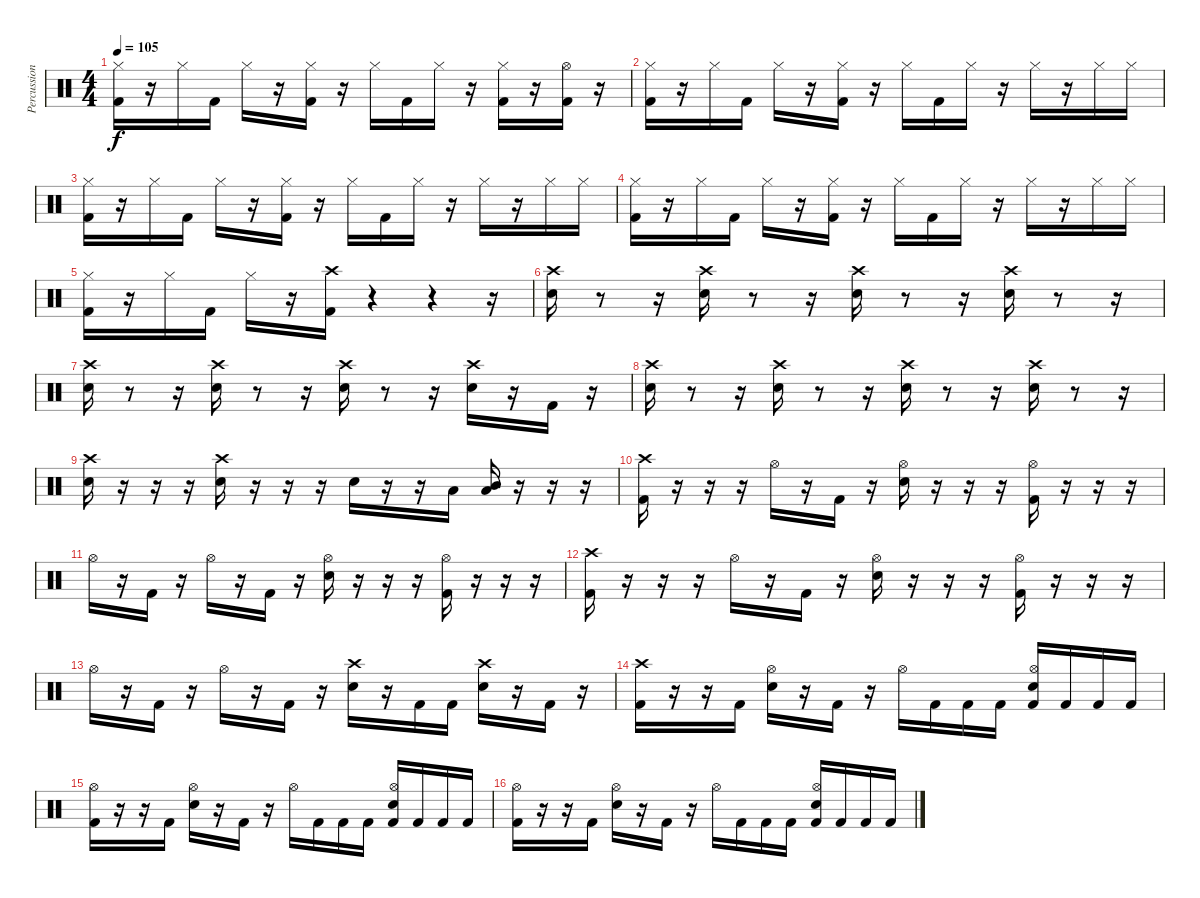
\track ("Percussion" "Percussion") {instrument percussion}
\staff {score}
\articulation defaults
\ts (4 4)
\tempo 105
\clef neutral
\ks c
("Hi-Hat (closed)" "Kick (hit) 2").16{dy f} r.16 "Hi-Hat (closed)".16 "Kick (hit) 2".16 "Hi-Hat (closed)".16 r.16 ("Hi-Hat (closed)" "Kick (hit) 2").16 r.16 "Hi-Hat (closed)".16 "Kick (hit) 2".16 "Hi-Hat (closed)".16 r.16 ("Hi-Hat (closed)" "Kick (hit) 2").16 r.16 ("Hi-Hat (open)" "Kick (hit) 2").16 r.16 |
("Hi-Hat (closed)" "Kick (hit) 2").16 r.16 "Hi-Hat (closed)".16 "Kick (hit) 2".16 "Hi-Hat (closed)".16 r.16 ("Hi-Hat (closed)" "Kick (hit) 2").16 r.16 "Hi-Hat (closed)".16 "Kick (hit) 2".16 "Hi-Hat (closed)".16 r.16 "Hi-Hat (closed)".16 r.16 "Hi-Hat (closed)".16 "Hi-Hat (closed)".16 |
("Hi-Hat (closed)" "Kick (hit) 2").16 r.16 "Hi-Hat (closed)".16 "Kick (hit) 2".16 "Hi-Hat (closed)".16 r.16 ("Hi-Hat (closed)" "Kick (hit) 2").16 r.16 "Hi-Hat (closed)".16 "Kick (hit) 2".16 "Hi-Hat (closed)".16 r.16 "Hi-Hat (closed)".16 r.16 "Hi-Hat (closed)".16 "Hi-Hat (closed)".16 |
("Hi-Hat (closed)" "Kick (hit) 2").16 r.16 "Hi-Hat (closed)".16 "Kick (hit) 2".16 "Hi-Hat (closed)".16 r.16 ("Hi-Hat (closed)" "Kick (hit) 2").16 r.16 "Hi-Hat (closed)".16 "Kick (hit) 2".16 "Hi-Hat (closed)".16 r.16 "Hi-Hat (closed)".16 r.16 "Hi-Hat (closed)".16 "Hi-Hat (closed)".16 |
("Hi-Hat (closed)" "Kick (hit) 2").16 r.16 "Hi-Hat (closed)".16 "Kick (hit) 2".16 "Hi-Hat (closed)".16 r.16 ("Crash high (hit)" "Kick (hit) 2").16 r.4 r.4 r.16 |
("Crash high (hit)" "Snare (hit) 2").16 r.8 r.16 ("Crash high (hit)" "Snare (hit) 2").16 r.8 r.16 ("Crash high (hit)" "Snare (hit) 2").16 r.8 r.16 ("Crash high (hit)" "Snare (hit) 2").16 r.8 r.16 |
("Crash high (hit)" "Snare (hit) 2").16 r.8 r.16 ("Crash high (hit)" "Snare (hit) 2").16 r.8 r.16 ("Crash high (hit)" "Snare (hit) 2").16 r.8 r.16 ("Crash high (hit)" "Snare (hit) 2").16 r.16 "Kick (hit) 2".16 r.16 |
("Crash high (hit)" "Snare (hit) 2").16 r.8 r.16 ("Crash high (hit)" "Snare (hit) 2").16 r.8 r.16 ("Crash high (hit)" "Snare (hit) 2").16 r.8 r.16 ("Crash high (hit)" "Snare (hit) 2").16 r.8 r.16 |
("Crash high (hit)" "Snare (hit) 2").16 r.16 r.16 r.16 ("Crash high (hit)" "Snare (hit) 2").16 r.16 r.16 r.16 "Electric Snare (hit)".16 r.16 r.16 "Low Floor Tom (hit)".16 ("Mid Tom (hit)" "Low Floor Tom (hit)").16 r.16 r.16 r.16 |
("Crash high (hit)" "Kick (hit) 2").16 r.16 r.16 r.16 "Hi-Hat (open)".16 r.16 "Kick (hit) 2".16 r.16 ("Hi-Hat (open)" "Snare (hit) 2").16 r.16 r.16 r.16 ("Hi-Hat (open)" "Kick (hit) 2").16 r.16 r.16 r.16 |
"Hi-Hat (open)".16 r.16 "Kick (hit) 2".16 r.16 "Hi-Hat (open)".16 r.16 "Kick (hit) 2".16 r.16 ("Hi-Hat (open)" "Snare (hit) 2").16 r.16 r.16 r.16 ("Hi-Hat (open)" "Kick (hit) 2").16 r.16 r.16 r.16 |
("Crash high (hit)" "Kick (hit) 2").16 r.16 r.16 r.16 "Hi-Hat (open)".16 r.16 "Kick (hit) 2".16 r.16 ("Hi-Hat (open)" "Snare (hit) 2").16 r.16 r.16 r.16 ("Hi-Hat (open)" "Kick (hit) 2").16 r.16 r.16 r.16 |
"Hi-Hat (open)".16 r.16 "Kick (hit) 2".16 r.16 "Hi-Hat (open)".16 r.16 "Kick (hit) 2".16 r.16 ("Crash high (hit)" "Snare (hit) 2").16 r.16 "Kick (hit) 2".16 "Kick (hit) 2".16 ("Crash high (hit)" "Snare (hit) 2").16 r.16 "Kick (hit) 2".16 r.16 |
("Crash high (hit)" "Kick (hit) 2").16 r.16 r.16 "Kick (hit) 2".16 ("Hi-Hat (open)" "Snare (hit) 2").16 r.16 "Kick (hit) 2".16 r.16 "Hi-Hat (open)".16 "Kick (hit) 2".16 "Kick (hit) 2".16 "Kick (hit) 2".16 ("Hi-Hat (open)" "Snare (hit) 2" "Kick (hit) 2").16 "Kick (hit) 2".16 "Kick (hit) 2".16 "Kick (hit) 2".16 |
("Hi-Hat (open)" "Kick (hit) 2").16 r.16 r.16 "Kick (hit) 2".16 ("Hi-Hat (open)" "Snare (hit) 2").16 r.16 "Kick (hit) 2".16 r.16 "Hi-Hat (open)".16 "Kick (hit) 2".16 "Kick (hit) 2".16 "Kick (hit) 2".16 ("Hi-Hat (open)" "Snare (hit) 2" "Kick (hit) 2").16 "Kick (hit) 2".16 "Kick (hit) 2".16 "Kick (hit) 2".16 |
("Hi-Hat (open)" "Kick (hit) 2").16 r.16 r.16 "Kick (hit) 2".16 ("Hi-Hat (open)" "Snare (hit) 2").16 r.16 "Kick (hit) 2".16 r.16 "Hi-Hat (open)".16 "Kick (hit) 2".16 "Kick (hit) 2".16 "Kick (hit) 2".16 ("Hi-Hat (open)" "Snare (hit) 2" "Kick (hit) 2").16 "Kick (hit) 2".16 "Kick (hit) 2".16 "Kick (hit) 2".16
